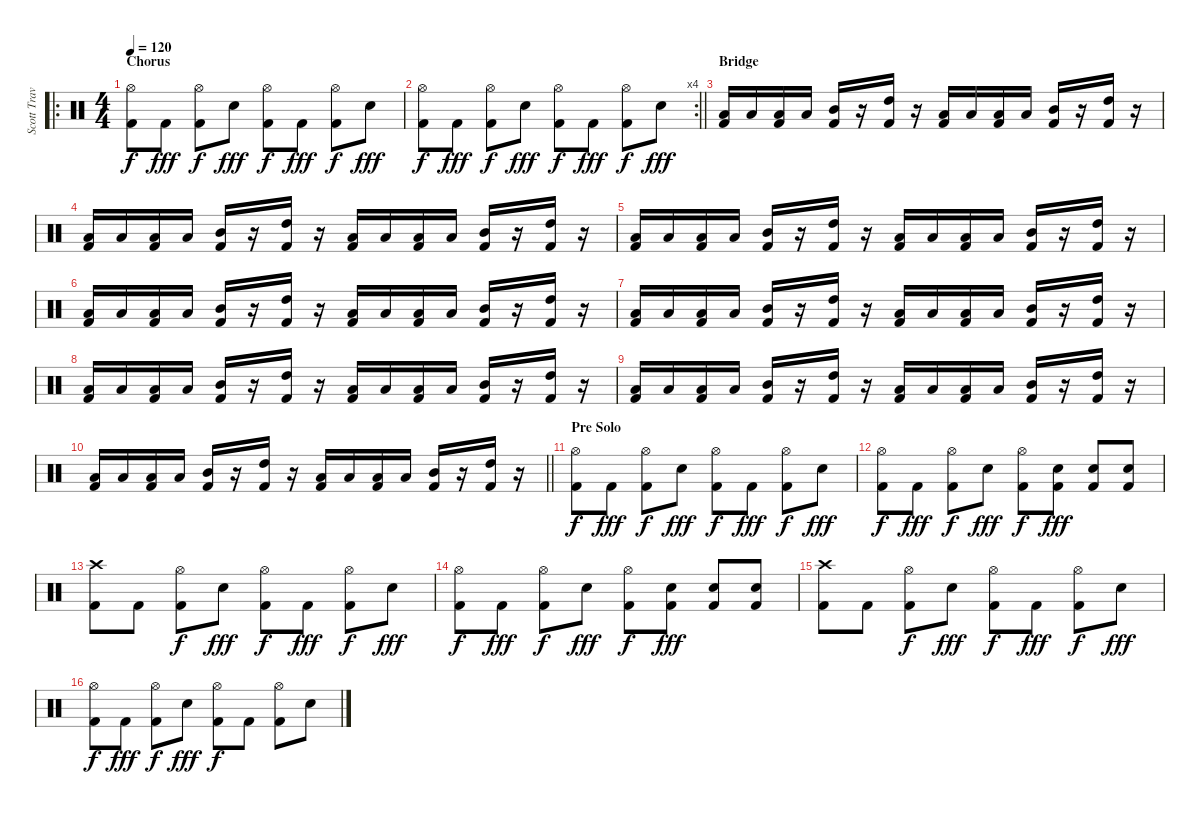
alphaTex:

\track ("Scott Travis" "Scott Trav") {instrument percussion}
\staff {score}
\articulation defaults
\ro
\ts (4 4)
\section ("" "Chorus")
\tempo 120
\clef neutral
\ks c
("Hi-Hat (open)" "Kick (hit) 2").8{dy f} "Kick (hit) 2".8{dy fff} ("Hi-Hat (open)" "Kick (hit) 2").8{dy f} "Electric Snare (hit)".8{dy fff} ("Hi-Hat (open)" "Kick (hit) 2").8{dy f} "Kick (hit) 2".8{dy fff} ("Hi-Hat (open)" "Kick (hit) 2").8{dy f} "Electric Snare (hit)".8{dy fff} |
\rc 4
\barLineRight lightlight
("Hi-Hat (open)" "Kick (hit) 2").8{dy f} "Kick (hit) 2".8{dy fff} ("Hi-Hat (open)" "Kick (hit) 2").8{dy f} "Electric Snare (hit)".8{dy fff} ("Hi-Hat (open)" "Kick (hit) 2").8{dy f} "Kick (hit) 2".8{dy fff} ("Hi-Hat (open)" "Kick (hit) 2").8{dy f} "Electric Snare (hit)".8{dy fff} |
\section ("" "Bridge")
("Low Tom (hit)" "Kick (hit) 2").16 "Low Tom (hit)".16 ("Low Tom (hit)" "Kick (hit) 2").16 "Low Tom (hit)".16 ("Mid Tom (hit)" "Kick (hit) 2").16 r.16 ("High Tom (hit)" "Kick (hit) 2").16 r.16 ("Low Tom (hit)" "Kick (hit) 2").16 "Low Tom (hit)".16 ("Low Tom (hit)" "Kick (hit) 2").16 "Low Tom (hit)".16 ("Mid Tom (hit)" "Kick (hit) 2").16 r.16 ("High Tom (hit)" "Kick (hit) 2").16 r.16 |
("Low Tom (hit)" "Kick (hit) 2").16 "Low Tom (hit)".16 ("Low Tom (hit)" "Kick (hit) 2").16 "Low Tom (hit)".16 ("Mid Tom (hit)" "Kick (hit) 2").16 r.16 ("High Tom (hit)" "Kick (hit) 2").16 r.16 ("Low Tom (hit)" "Kick (hit) 2").16 "Low Tom (hit)".16 ("Low Tom (hit)" "Kick (hit) 2").16 "Low Tom (hit)".16 ("Mid Tom (hit)" "Kick (hit) 2").16 r.16 ("High Tom (hit)" "Kick (hit) 2").16 r.16 |
("Low Tom (hit)" "Kick (hit) 2").16 "Low Tom (hit)".16 ("Low Tom (hit)" "Kick (hit) 2").16 "Low Tom (hit)".16 ("Mid Tom (hit)" "Kick (hit) 2").16 r.16 ("High Tom (hit)" "Kick (hit) 2").16 r.16 ("Low Tom (hit)" "Kick (hit) 2").16 "Low Tom (hit)".16 ("Low Tom (hit)" "Kick (hit) 2").16 "Low Tom (hit)".16 ("Mid Tom (hit)" "Kick (hit) 2").16 r.16 ("High Tom (hit)" "Kick (hit) 2").16 r.16 |
("Low Tom (hit)" "Kick (hit) 2").16 "Low Tom (hit)".16 ("Low Tom (hit)" "Kick (hit) 2").16 "Low Tom (hit)".16 ("Mid Tom (hit)" "Kick (hit) 2").16 r.16 ("High Tom (hit)" "Kick (hit) 2").16 r.16 ("Low Tom (hit)" "Kick (hit) 2").16 "Low Tom (hit)".16 ("Low Tom (hit)" "Kick (hit) 2").16 "Low Tom (hit)".16 ("Mid Tom (hit)" "Kick (hit) 2").16 r.16 ("High Tom (hit)" "Kick (hit) 2").16 r.16 |
("Low Tom (hit)" "Kick (hit) 2").16 "Low Tom (hit)".16 ("Low Tom (hit)" "Kick (hit) 2").16 "Low Tom (hit)".16 ("Mid Tom (hit)" "Kick (hit) 2").16 r.16 ("High Tom (hit)" "Kick (hit) 2").16 r.16 ("Low Tom (hit)" "Kick (hit) 2").16 "Low Tom (hit)".16 ("Low Tom (hit)" "Kick (hit) 2").16 "Low Tom (hit)".16 ("Mid Tom (hit)" "Kick (hit) 2").16 r.16 ("High Tom (hit)" "Kick (hit) 2").16 r.16 |
("Low Tom (hit)" "Kick (hit) 2").16 "Low Tom (hit)".16 ("Low Tom (hit)" "Kick (hit) 2").16 "Low Tom (hit)".16 ("Mid Tom (hit)" "Kick (hit) 2").16 r.16 ("High Tom (hit)" "Kick (hit) 2").16 r.16 ("Low Tom (hit)" "Kick (hit) 2").16 "Low Tom (hit)".16 ("Low Tom (hit)" "Kick (hit) 2").16 "Low Tom (hit)".16 ("Mid Tom (hit)" "Kick (hit) 2").16 r.16 ("High Tom (hit)" "Kick (hit) 2").16 r.16 |
("Low Tom (hit)" "Kick (hit) 2").16 "Low Tom (hit)".16 ("Low Tom (hit)" "Kick (hit) 2").16 "Low Tom (hit)".16 ("Mid Tom (hit)" "Kick (hit) 2").16 r.16 ("High Tom (hit)" "Kick (hit) 2").16 r.16 ("Low Tom (hit)" "Kick (hit) 2").16 "Low Tom (hit)".16 ("Low Tom (hit)" "Kick (hit) 2").16 "Low Tom (hit)".16 ("Mid Tom (hit)" "Kick (hit) 2").16 r.16 ("High Tom (hit)" "Kick (hit) 2").16 r.16 |
\barLineRight lightlight
("Low Tom (hit)" "Kick (hit) 2").16 "Low Tom (hit)".16 ("Low Tom (hit)" "Kick (hit) 2").16 "Low Tom (hit)".16 ("Mid Tom (hit)" "Kick (hit) 2").16 r.16 ("High Tom (hit)" "Kick (hit) 2").16 r.16 ("Low Tom (hit)" "Kick (hit) 2").16 "Low Tom (hit)".16 ("Low Tom (hit)" "Kick (hit) 2").16 "Low Tom (hit)".16 ("Mid Tom (hit)" "Kick (hit) 2").16 r.16 ("High Tom (hit)" "Kick (hit) 2").16 r.16 |
\section ("" "Pre Solo")
("Hi-Hat (open)" "Kick (hit) 2").8{dy f} "Kick (hit) 2".8{dy fff} ("Hi-Hat (open)" "Kick (hit) 2").8{dy f} "Electric Snare (hit)".8{dy fff} ("Hi-Hat (open)" "Kick (hit) 2").8{dy f} "Kick (hit) 2".8{dy fff} ("Hi-Hat (open)" "Kick (hit) 2").8{dy f} "Electric Snare (hit)".8{dy fff} |
("Hi-Hat (open)" "Kick (hit) 2").8{dy f} "Kick (hit) 2".8{dy fff} ("Hi-Hat (open)" "Kick (hit) 2").8{dy f} "Electric Snare (hit)".8{dy fff} ("Hi-Hat (open)" "Kick (hit) 2").8{dy f} ("Kick (hit) 2" "Electric Snare (hit)").8{dy fff} ("Kick (hit) 2" "Electric Snare (hit)").8 ("Kick (hit) 2" "Electric Snare (hit)").8 |
("Crash high (hit)" "Kick (hit) 2").8 "Kick (hit) 2".8 ("Hi-Hat (open)" "Kick (hit) 2").8{dy f} "Electric Snare (hit)".8{dy fff} ("Hi-Hat (open)" "Kick (hit) 2").8{dy f} "Kick (hit) 2".8{dy fff} ("Hi-Hat (open)" "Kick (hit) 2").8{dy f} "Electric Snare (hit)".8{dy fff} |
("Hi-Hat (open)" "Kick (hit) 2").8{dy f} "Kick (hit) 2".8{dy fff} ("Hi-Hat (open)" "Kick (hit) 2").8{dy f} "Electric Snare (hit)".8{dy fff} ("Hi-Hat (open)" "Kick (hit) 2").8{dy f} ("Kick (hit) 2" "Electric Snare (hit)").8{dy fff} ("Kick (hit) 2" "Electric Snare (hit)").8 ("Kick (hit) 2" "Electric Snare (hit)").8 |
("Crash high (hit)" "Kick (hit) 2").8 "Kick (hit) 2".8 ("Hi-Hat (open)" "Kick (hit) 2").8{dy f} "Electric Snare (hit)".8{dy fff} ("Hi-Hat (open)" "Kick (hit) 2").8{dy f} "Kick (hit) 2".8{dy fff} ("Hi-Hat (open)" "Kick (hit) 2").8{dy f} "Electric Snare (hit)".8{dy fff} |
("Hi-Hat (open)" "Kick (hit) 2").8{dy f} "Kick (hit) 2".8{dy fff} ("Hi-Hat (open)" "Kick (hit) 2").8{dy f} "Electric Snare (hit)".8{dy fff} ("Hi-Hat (open)" "Kick (hit) 2").8{dy f} "Kick (hit) 2".8 ("Hi-Hat (open)" "Kick (hit) 2").8 "Electric Snare (hit)".8
